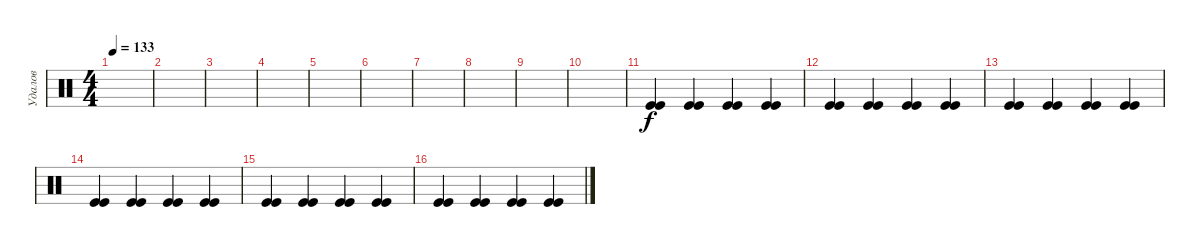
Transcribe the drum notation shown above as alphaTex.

\track ("Удалов" "Удалов") {instrument percussion}
\staff {score}
\articulation defaults
\ts (4 4)
\tempo 133
\clef neutral
\ks c
|
|
|
|
|
|
|
|
|
|
("Kick (hit)" "Kick (hit)").4 ("Kick (hit)" "Kick (hit)").4 ("Kick (hit)" "Kick (hit)").4 ("Kick (hit)" "Kick (hit)").4 |
("Kick (hit)" "Kick (hit)").4 ("Kick (hit)" "Kick (hit)").4 ("Kick (hit)" "Kick (hit)").4 ("Kick (hit)" "Kick (hit)").4 |
("Kick (hit)" "Kick (hit)").4 ("Kick (hit)" "Kick (hit)").4 ("Kick (hit)" "Kick (hit)").4 ("Kick (hit)" "Kick (hit)").4 |
("Kick (hit)" "Kick (hit)").4 ("Kick (hit)" "Kick (hit)").4 ("Kick (hit)" "Kick (hit)").4 ("Kick (hit)" "Kick (hit)").4 |
("Kick (hit)" "Kick (hit)").4 ("Kick (hit)" "Kick (hit)").4 ("Kick (hit)" "Kick (hit)").4 ("Kick (hit)" "Kick (hit)").4 |
("Kick (hit)" "Kick (hit)").4 ("Kick (hit)" "Kick (hit)").4 ("Kick (hit)" "Kick (hit)").4 ("Kick (hit)" "Kick (hit)").4
